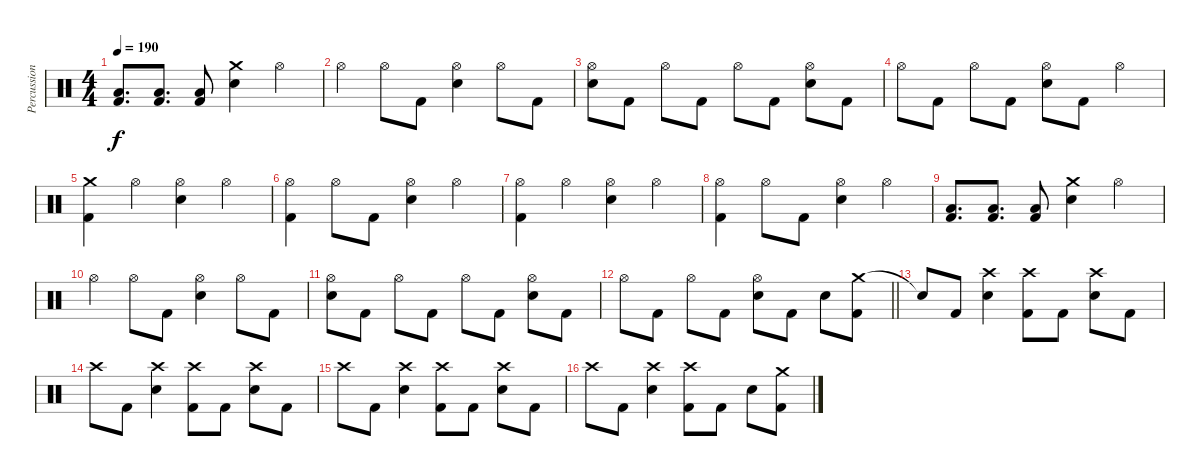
\track ("Percussion" "Percussion") {instrument percussion}
\staff {score}
\articulation defaults
\ts (4 4)
\tempo 190
\clef neutral
\ks c
("Low Floor Tom (hit)" "Kick (hit) 2").8{d dy f} ("Low Floor Tom (hit)" "Kick (hit) 2").8{d} ("Low Floor Tom (hit)" "Kick (hit) 2").8 ("Crash medium (hit)" "Electric Snare (hit)").4 "Hi-Hat (open)".4 |
"Hi-Hat (open)".4 "Hi-Hat (open)".8 "Kick (hit) 2".8 ("Hi-Hat (open)" "Electric Snare (hit)").4 "Hi-Hat (open)".8 "Kick (hit) 2".8 |
("Hi-Hat (open)" "Electric Snare (hit)").8 "Kick (hit) 2".8 "Hi-Hat (open)".8 "Kick (hit) 2".8 "Hi-Hat (open)".8 "Kick (hit) 2".8 ("Hi-Hat (open)" "Electric Snare (hit)").8 "Kick (hit) 2".8 |
"Hi-Hat (open)".8 "Kick (hit) 2".8 "Hi-Hat (open)".8 "Kick (hit) 2".8 ("Hi-Hat (open)" "Electric Snare (hit)").8 "Kick (hit) 2".8 "Hi-Hat (open)".4 |
("Crash medium (hit)" "Kick (hit) 2").4 "Hi-Hat (open)".4 ("Hi-Hat (open)" "Electric Snare (hit)").4 "Hi-Hat (open)".4 |
("Hi-Hat (open)" "Kick (hit) 2").4 "Hi-Hat (open)".8 "Kick (hit) 2".8 ("Hi-Hat (open)" "Electric Snare (hit)").4 "Hi-Hat (open)".4 |
("Hi-Hat (open)" "Kick (hit) 2").4 "Hi-Hat (open)".4 ("Hi-Hat (open)" "Electric Snare (hit)").4 "Hi-Hat (open)".4 |
("Hi-Hat (open)" "Kick (hit) 2").4 "Hi-Hat (open)".8 "Kick (hit) 2".8 ("Hi-Hat (open)" "Electric Snare (hit)").4 "Hi-Hat (open)".4 |
("Low Floor Tom (hit)" "Kick (hit) 2").8{d} ("Low Floor Tom (hit)" "Kick (hit) 2").8{d} ("Low Floor Tom (hit)" "Kick (hit) 2").8 ("Crash medium (hit)" "Electric Snare (hit)").4 "Hi-Hat (open)".4 |
"Hi-Hat (open)".4 "Hi-Hat (open)".8 "Kick (hit) 2".8 ("Hi-Hat (open)" "Electric Snare (hit)").4 "Hi-Hat (open)".8 "Kick (hit) 2".8 |
("Hi-Hat (open)" "Electric Snare (hit)").8 "Kick (hit) 2".8 "Hi-Hat (open)".8 "Kick (hit) 2".8 "Hi-Hat (open)".8 "Kick (hit) 2".8 ("Hi-Hat (open)" "Electric Snare (hit)").8 "Kick (hit) 2".8 |
\barLineRight lightlight "Hi-Hat (open)".8 "Kick (hit) 2".8 "Hi-Hat (open)".8 "Kick (hit) 2".8
("Hi-Hat (open)" "Electric Snare (hit)").8 "Kick (hit) 2".8 "Electric Snare (hit)".8 ("Crash medium (hit)" "Kick (hit) 2").8 |
"Snare (hit)"{t}.8 "Kick (hit) 2".8 ("Crash high (hit)" "Electric Snare (hit)").4 ("Crash high (hit)" "Kick (hit) 2").8 "Kick (hit) 2".8 ("Crash high (hit)" "Electric Snare (hit)").8 "Kick (hit) 2".8 |
"Crash high (hit)".8 "Kick (hit) 2".8 ("Crash high (hit)" "Electric Snare (hit)").4 ("Crash high (hit)" "Kick (hit) 2").8 "Kick (hit) 2".8 ("Crash high (hit)" "Electric Snare (hit)").8 "Kick (hit) 2".8 |
"Crash high (hit)".8 "Kick (hit) 2".8 ("Crash high (hit)" "Electric Snare (hit)").4 ("Crash high (hit)" "Kick (hit) 2").8 "Kick (hit) 2".8 ("Crash high (hit)" "Electric Snare (hit)").8 "Kick (hit) 2".8 |
"Crash high (hit)".8 "Kick (hit) 2".8 ("Crash high (hit)" "Electric Snare (hit)").4 ("Crash high (hit)" "Kick (hit) 2").8 "Kick (hit) 2".8 "Electric Snare (hit)".8 ("Crash medium (hit)" "Kick (hit) 2").8
